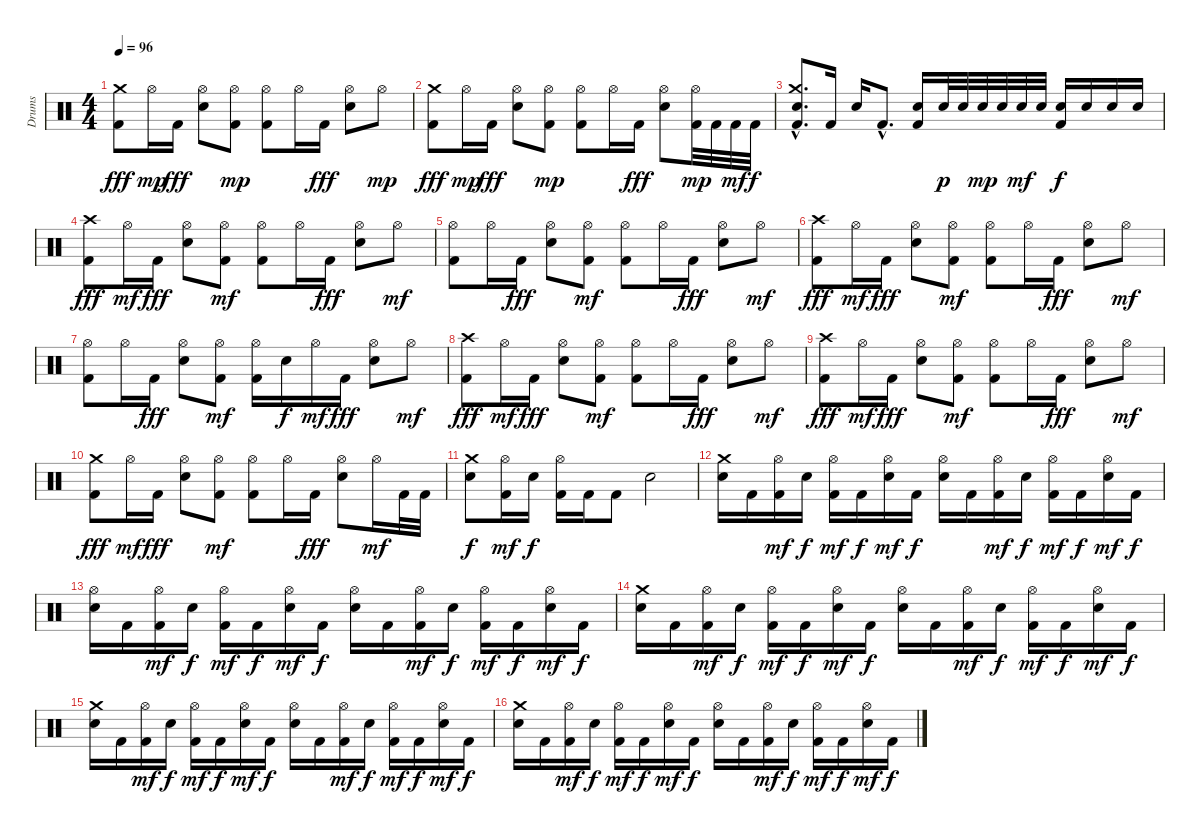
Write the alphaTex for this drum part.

\track ("Drums" "Drums") {instrument percussion}
\staff {score}
\articulation defaults
\ts (4 4)
\tempo 96
\clef neutral
\ks c
("Kick (hit) 2" "Crash medium (hit)").8{dy fff} "Hi-Hat (open)".16{dy mp} "Kick (hit) 2".16{dy fff} ("Hi-Hat (open)" "Snare (hit) 2").8 ("Kick (hit) 2" "Hi-Hat (open)").8{dy mp} ("Kick (hit) 2" "Hi-Hat (open)").8 "Hi-Hat (open)".16 "Kick (hit) 2".16{dy fff} ("Hi-Hat (open)" "Snare (hit) 2").8 "Hi-Hat (open)".8{dy mp} |
("Kick (hit) 2" "Crash medium (hit)").8{dy fff} "Hi-Hat (open)".16{dy mp} "Kick (hit) 2".16{dy fff} ("Hi-Hat (open)" "Snare (hit) 2").8 ("Kick (hit) 2" "Hi-Hat (open)").8{dy mp} ("Kick (hit) 2" "Hi-Hat (open)").8 "Hi-Hat (open)".16 "Kick (hit) 2".16{dy fff} ("Hi-Hat (open)" "Snare (hit) 2").8 ("Kick (hit) 2" "Hi-Hat (open)").32{dy mp} "Kick (hit) 2".32 "Kick (hit) 2".32{dy mf} "Kick (hit) 2".32{dy f} |
("Kick (hit) 2"{hac} "Crash medium (hit)"{hac} "Snare (hit) 2"{hac}).8{d} "Kick (hit) 2".16 "Snare (hit) 2".16 "Kick (hit) 2"{hac}.8{d} ("Kick (hit) 2" "Snare (hit) 2").16 "Snare (hit) 2".32{dy p} "Snare (hit) 2".32 "Snare (hit) 2".32{dy mp} "Snare (hit) 2".32 "Snare (hit) 2".32{dy mf} "Snare (hit) 2".32 ("Kick (hit) 2" "Snare (hit) 2").16{dy f} "Snare (hit) 2".16 "Snare (hit) 2".16 "Snare (hit) 2".16 |
("Kick (hit) 2" "Crash high (hit)").8{dy fff} "Hi-Hat (open)".16{dy mf} "Kick (hit) 2".16{dy fff} ("Hi-Hat (open)" "Snare (hit) 2").8 ("Kick (hit) 2" "Hi-Hat (open)").8{dy mf} ("Kick (hit) 2" "Hi-Hat (open)").8 "Hi-Hat (open)".16 "Kick (hit) 2".16{dy fff} ("Hi-Hat (open)" "Snare (hit) 2").8 "Hi-Hat (open)".8{dy mf} |
("Kick (hit) 2" "Hi-Hat (open)").8 "Hi-Hat (open)".16 "Kick (hit) 2".16{dy fff} ("Hi-Hat (open)" "Snare (hit) 2").8 ("Kick (hit) 2" "Hi-Hat (open)").8{dy mf} ("Kick (hit) 2" "Hi-Hat (open)").8 "Hi-Hat (open)".16 "Kick (hit) 2".16{dy fff} ("Hi-Hat (open)" "Snare (hit) 2").8 "Hi-Hat (open)".8{dy mf} |
("Kick (hit) 2" "Crash high (hit)").8{dy fff} "Hi-Hat (open)".16{dy mf} "Kick (hit) 2".16{dy fff} ("Hi-Hat (open)" "Snare (hit) 2").8 ("Kick (hit) 2" "Hi-Hat (open)").8{dy mf} ("Kick (hit) 2" "Hi-Hat (open)").8 "Hi-Hat (open)".16 "Kick (hit) 2".16{dy fff} ("Hi-Hat (open)" "Snare (hit) 2").8 "Hi-Hat (open)".8{dy mf} |
("Kick (hit) 2" "Hi-Hat (open)").8 "Hi-Hat (open)".16 "Kick (hit) 2".16{dy fff} ("Hi-Hat (open)" "Snare (hit) 2").8 ("Kick (hit) 2" "Hi-Hat (open)").8{dy mf} ("Kick (hit) 2" "Hi-Hat (open)").16 "Snare (hit) 2".16{dy f} "Hi-Hat (open)".16{dy mf} "Kick (hit) 2".16{dy fff} ("Hi-Hat (open)" "Snare (hit) 2").8 "Hi-Hat (open)".8{dy mf} |
("Kick (hit) 2" "Crash high (hit)").8{dy fff} "Hi-Hat (open)".16{dy mf} "Kick (hit) 2".16{dy fff} ("Hi-Hat (open)" "Snare (hit) 2").8 ("Kick (hit) 2" "Hi-Hat (open)").8{dy mf} ("Kick (hit) 2" "Hi-Hat (open)").8 "Hi-Hat (open)".16 "Kick (hit) 2".16{dy fff} ("Hi-Hat (open)" "Snare (hit) 2").8 "Hi-Hat (open)".8{dy mf} |
("Kick (hit) 2" "Crash high (hit)").8{dy fff} "Hi-Hat (open)".16{dy mf} "Kick (hit) 2".16{dy fff} ("Hi-Hat (open)" "Snare (hit) 2").8 ("Kick (hit) 2" "Hi-Hat (open)").8{dy mf} ("Kick (hit) 2" "Hi-Hat (open)").8 "Hi-Hat (open)".16 "Kick (hit) 2".16{dy fff} ("Hi-Hat (open)" "Snare (hit) 2").8 "Hi-Hat (open)".8{dy mf} |
("Kick (hit) 2" "Crash medium (hit)").8{dy fff} "Hi-Hat (open)".16{dy mf} "Kick (hit) 2".16{dy fff} ("Hi-Hat (open)" "Snare (hit) 2").8 ("Kick (hit) 2" "Hi-Hat (open)").8{dy mf} ("Kick (hit) 2" "Hi-Hat (open)").8 "Hi-Hat (open)".16 "Kick (hit) 2".16{dy fff} ("Hi-Hat (open)" "Snare (hit) 2").8 "Hi-Hat (open)".16{dy mf} "Kick (hit) 2".32 "Kick (hit) 2".32 |
("Crash medium (hit)" "Snare (hit) 2").8{dy f} ("Kick (hit) 2" "Hi-Hat (open)").16{dy mf} "Snare (hit) 2".16{dy f} ("Kick (hit) 2" "Hi-Hat (open)").16 "Kick (hit) 2".16 "Kick (hit) 2".8 "Snare (hit) 2".2 |
("Crash medium (hit)" "Snare (hit) 2").16 "Kick (hit) 2".16 ("Kick (hit) 2" "Hi-Hat (open)").16{dy mf} "Snare (hit) 2".16{dy f} ("Kick (hit) 2" "Hi-Hat (open)").16{dy mf} "Kick (hit) 2".16{dy f} ("Hi-Hat (open)" "Snare (hit) 2").16{dy mf} "Kick (hit) 2".16{dy f} ("Hi-Hat (open)" "Snare (hit) 2").16 "Kick (hit) 2".16 ("Kick (hit) 2" "Hi-Hat (open)").16{dy mf} "Snare (hit) 2".16{dy f} ("Kick (hit) 2" "Hi-Hat (open)").16{dy mf} "Kick (hit) 2".16{dy f} ("Hi-Hat (open)" "Snare (hit) 2").16{dy mf} "Kick (hit) 2".16{dy f} |
("Hi-Hat (open)" "Snare (hit) 2").16 "Kick (hit) 2".16 ("Kick (hit) 2" "Hi-Hat (open)").16{dy mf} "Snare (hit) 2".16{dy f} ("Kick (hit) 2" "Hi-Hat (open)").16{dy mf} "Kick (hit) 2".16{dy f} ("Hi-Hat (open)" "Snare (hit) 2").16{dy mf} "Kick (hit) 2".16{dy f} ("Hi-Hat (open)" "Snare (hit) 2").16 "Kick (hit) 2".16 ("Kick (hit) 2" "Hi-Hat (open)").16{dy mf} "Snare (hit) 2".16{dy f} ("Kick (hit) 2" "Hi-Hat (open)").16{dy mf} "Kick (hit) 2".16{dy f} ("Hi-Hat (open)" "Snare (hit) 2").16{dy mf} "Kick (hit) 2".16{dy f} |
("Crash medium (hit)" "Snare (hit) 2").16 "Kick (hit) 2".16 ("Kick (hit) 2" "Hi-Hat (open)").16{dy mf} "Snare (hit) 2".16{dy f} ("Kick (hit) 2" "Hi-Hat (open)").16{dy mf} "Kick (hit) 2".16{dy f} ("Hi-Hat (open)" "Snare (hit) 2").16{dy mf} "Kick (hit) 2".16{dy f} ("Hi-Hat (open)" "Snare (hit) 2").16 "Kick (hit) 2".16 ("Kick (hit) 2" "Hi-Hat (open)").16{dy mf} "Snare (hit) 2".16{dy f} ("Kick (hit) 2" "Hi-Hat (open)").16{dy mf} "Kick (hit) 2".16{dy f} ("Hi-Hat (open)" "Snare (hit) 2").16{dy mf} "Kick (hit) 2".16{dy f} |
("Crash medium (hit)" "Snare (hit) 2").16 "Kick (hit) 2".16 ("Kick (hit) 2" "Hi-Hat (open)").16{dy mf} "Snare (hit) 2".16{dy f} ("Kick (hit) 2" "Hi-Hat (open)").16{dy mf} "Kick (hit) 2".16{dy f} ("Hi-Hat (open)" "Snare (hit) 2").16{dy mf} "Kick (hit) 2".16{dy f} ("Hi-Hat (open)" "Snare (hit) 2").16 "Kick (hit) 2".16 ("Kick (hit) 2" "Hi-Hat (open)").16{dy mf} "Snare (hit) 2".16{dy f} ("Kick (hit) 2" "Hi-Hat (open)").16{dy mf} "Kick (hit) 2".16{dy f} ("Hi-Hat (open)" "Snare (hit) 2").16{dy mf} "Kick (hit) 2".16{dy f} |
("Crash medium (hit)" "Snare (hit) 2").16 "Kick (hit) 2".16 ("Kick (hit) 2" "Hi-Hat (open)").16{dy mf} "Snare (hit) 2".16{dy f} ("Kick (hit) 2" "Hi-Hat (open)").16{dy mf} "Kick (hit) 2".16{dy f} ("Hi-Hat (open)" "Snare (hit) 2").16{dy mf} "Kick (hit) 2".16{dy f} ("Hi-Hat (open)" "Snare (hit) 2").16 "Kick (hit) 2".16 ("Kick (hit) 2" "Hi-Hat (open)").16{dy mf} "Snare (hit) 2".16{dy f} ("Kick (hit) 2" "Hi-Hat (open)").16{dy mf} "Kick (hit) 2".16{dy f} ("Hi-Hat (open)" "Snare (hit) 2").16{dy mf} "Kick (hit) 2".16{dy f}
